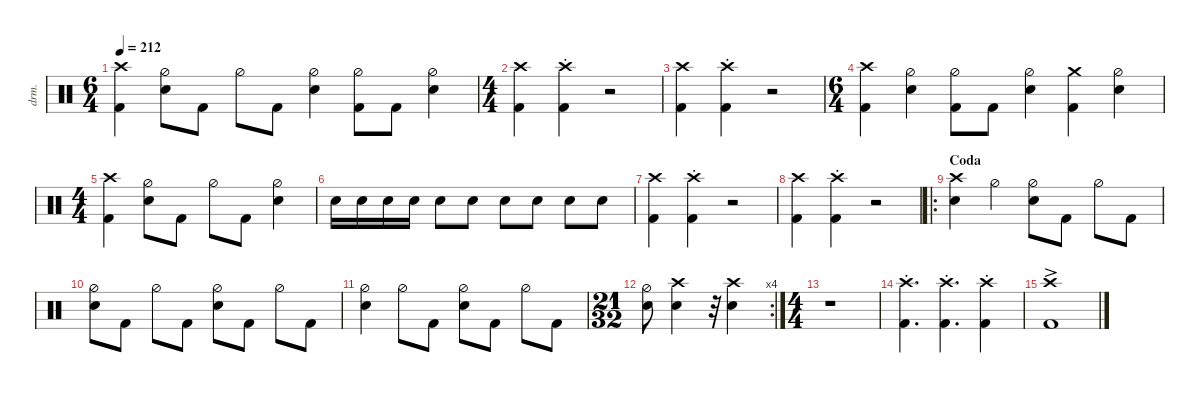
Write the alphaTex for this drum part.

\defaultSystemsLayout 4
\hideDynamics
\bracketExtendMode nobrackets
\track ("Drums" "drm.") {defaultSystemsLayout 4 multiBarRest instrument percussion}
\staff
\articulation defaults
\ts (6 4)
\tempo 212
\clef neutral
\ks c
("Crash high (hit)" "Kick (hit) 2").4{dy f} ("Hi-Hat (half)" "Snare (hit) 2").8 "Kick (hit) 2".8 "Hi-Hat (half)".8 "Kick (hit) 2".8 ("Hi-Hat (half)" "Snare (hit) 2").4 ("Hi-Hat (half)" "Kick (hit) 2").8 "Kick (hit) 2".8 ("Hi-Hat (half)" "Snare (hit) 2").4 |
\ts (4 4)
\beaming (8 2 2 2 2)
("Kick (hit) 2" "Crash high (hit)").4 ("Kick (hit) 2" "Crash high (hit)"{st}).4 r.2 |
("Kick (hit) 2" "Crash high (hit)").4 ("Kick (hit) 2" "Crash high (hit)"{st}).4 r.2 |
\ts (6 4)
\beaming (8 6 6)
("Crash high (hit)" "Kick (hit) 2").4 ("Hi-Hat (half)" "Snare (hit) 2").4 ("Hi-Hat (half)" "Kick (hit) 2").8 "Kick (hit) 2".8 ("Hi-Hat (half)" "Snare (hit) 2").4 ("Kick (hit) 2" "Crash medium (hit)").4 ("Hi-Hat (half)" "Snare (hit) 2").4 |
\ts (4 4)
\beaming (8 2 2 2 2)
("Crash high (hit)" "Kick (hit) 2").4 ("Hi-Hat (half)" "Snare (hit) 2").8 "Kick (hit) 2".8 "Hi-Hat (half)".8 "Kick (hit) 2".8 ("Hi-Hat (half)" "Snare (hit) 2").4 |
"Snare (hit) 2".16 "Snare (hit) 2".16 "Snare (hit) 2".16 "Snare (hit) 2".16 "Snare (hit) 2".8 "Snare (hit) 2".8 "Snare (hit) 2".8 "Snare (hit) 2".8 "Snare (hit) 2".8 "Snare (hit) 2".8 |
("Kick (hit) 2" "Crash high (hit)").4 ("Kick (hit) 2" "Crash high (hit)"{st}).4 r.2 |
("Kick (hit) 2" "Crash high (hit)").4 ("Kick (hit) 2" "Crash high (hit)"{st}).4 r.2 |
\ro
\section ("" "Coda")
("Snare (hit) 2" "Crash high (hit)").4 "Hi-Hat (half)".4 ("Hi-Hat (half)" "Snare (hit) 2").8 "Kick (hit) 2".8 "Hi-Hat (half)".8 "Kick (hit) 2".8 |
("Hi-Hat (half)" "Snare (hit) 2").8 "Kick (hit) 2".8 "Hi-Hat (half)".8 "Kick (hit) 2".8 ("Hi-Hat (half)" "Snare (hit) 2").8 "Kick (hit) 2".8 "Hi-Hat (half)".8 "Kick (hit) 2".8 |
("Hi-Hat (half)" "Snare (hit) 2").4 "Hi-Hat (half)".8 "Kick (hit) 2".8 ("Hi-Hat (half)" "Snare (hit) 2").8 "Kick (hit) 2".8 "Hi-Hat (half)".8 "Kick (hit) 2".8 |
\rc 4
\ts (21 32)
\beaming (8 3 2)
("Snare (hit) 2" "Hi-Hat (half)").8 ("Snare (hit) 2" "Crash high (hit)").4 r.32 ("Snare (hit) 2" "Crash high (hit)").4 |
\ts (4 4)
\beaming (8 2 2 2 2)
r.1 |
("Kick (hit) 2" "Crash high (hit)"{st}).4{d} ("Kick (hit) 2" "Crash high (hit)"{st}).4{d} ("Kick (hit) 2" "Crash high (hit)"{st}).4 |
("Crash high (hit)"{ac} "Kick (hit) 2").1
